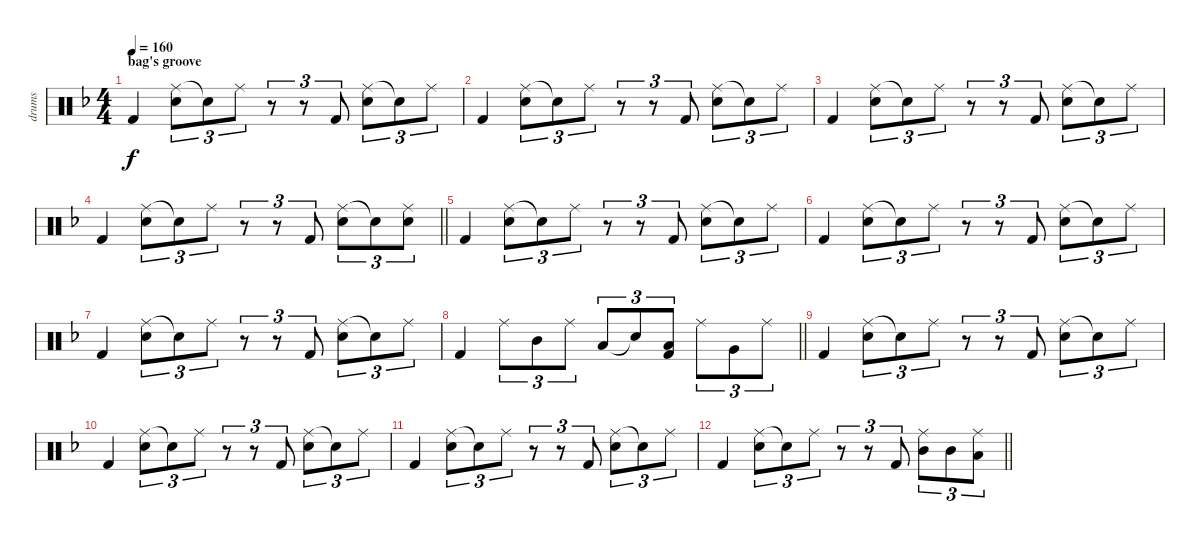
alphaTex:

\track ("drums" "drums") {instrument percussion}
\staff {score}
\articulation defaults
\ts (4 4)
\section ("" "bag's groove")
\tempo 160
\clef neutral
\ks f "Kick (hit) 2".4{dy f}
("Ride (middle)" "Electric Snare (hit)").8{tu (3 2)} "Snare (hit)"{t}.8{tu (3 2)} "Ride (middle)".8{tu (3 2)} r.8{tu (3 2)} r.8{tu (3 2)} "Kick (hit) 2".8{tu (3 2)} ("Ride (middle)" "Electric Snare (hit)").8{tu (3 2)} "Snare (hit)"{t}.8{tu (3 2)} "Ride (middle)".8{tu (3 2)} |
"Kick (hit) 2".4 ("Ride (middle)" "Electric Snare (hit)").8{tu (3 2)} "Snare (hit)"{t}.8{tu (3 2)} "Ride (middle)".8{tu (3 2)} r.8{tu (3 2)} r.8{tu (3 2)} "Kick (hit) 2".8{tu (3 2)} ("Ride (middle)" "Electric Snare (hit)").8{tu (3 2)} "Snare (hit)"{t}.8{tu (3 2)} "Ride (middle)".8{tu (3 2)} |
"Kick (hit) 2".4 ("Ride (middle)" "Electric Snare (hit)").8{tu (3 2)} "Snare (hit)"{t}.8{tu (3 2)} "Ride (middle)".8{tu (3 2)} r.8{tu (3 2)} r.8{tu (3 2)} "Kick (hit) 2".8{tu (3 2)} ("Ride (middle)" "Electric Snare (hit)").8{tu (3 2)} "Snare (hit)"{t}.8{tu (3 2)} "Ride (middle)".8{tu (3 2)} |
\barLineRight lightlight "Kick (hit) 2".4
("Ride (middle)" "Electric Snare (hit)").8{tu (3 2)} "Snare (hit)"{t}.8{tu (3 2)} "Ride (middle)".8{tu (3 2)} r.8{tu (3 2)} r.8{tu (3 2)} "Kick (hit) 2".8{tu (3 2)} ("Ride (middle)" "Electric Snare (hit)").8{tu (3 2)} "Snare (hit)"{t}.8{tu (3 2)} ("Ride (middle)" "Electric Snare (hit)").8{tu (3 2)} |
"Kick (hit) 2".4 ("Ride (middle)" "Electric Snare (hit)").8{tu (3 2)} "Snare (hit)"{t}.8{tu (3 2)} "Ride (middle)".8{tu (3 2)} r.8{tu (3 2)} r.8{tu (3 2)} "Kick (hit) 2".8{tu (3 2)} ("Ride (middle)" "Electric Snare (hit)").8{tu (3 2)} "Snare (hit)"{t}.8{tu (3 2)} "Ride (middle)".8{tu (3 2)} |
"Kick (hit) 2".4 ("Ride (middle)" "Electric Snare (hit)").8{tu (3 2)} "Snare (hit)"{t}.8{tu (3 2)} "Ride (middle)".8{tu (3 2)} r.8{tu (3 2)} r.8{tu (3 2)} "Kick (hit) 2".8{tu (3 2)} ("Ride (middle)" "Electric Snare (hit)").8{tu (3 2)} "Snare (hit)"{t}.8{tu (3 2)} "Ride (middle)".8{tu (3 2)} |
"Kick (hit) 2".4 ("Ride (middle)" "Electric Snare (hit)").8{tu (3 2)} "Snare (hit)"{t}.8{tu (3 2)} "Ride (middle)".8{tu (3 2)} r.8{tu (3 2)} r.8{tu (3 2)} "Kick (hit) 2".8{tu (3 2)} ("Ride (middle)" "Electric Snare (hit)").8{tu (3 2)} "Snare (hit)"{t}.8{tu (3 2)} "Ride (middle)".8{tu (3 2)} |
\barLineRight lightlight "Kick (hit) 2".4 "Ride (middle)".8{tu (3 2)} "Mid Tom (hit)".8{tu (3 2)} "Ride (middle)".8{tu (3 2)} "Low Tom (hit)".8{tu (3 2)} "Snare (hit)"{t}.8{tu (3 2)}
("Low Tom (hit)" "Kick (hit) 2").8{tu (3 2)} "Ride (middle)".8{tu (3 2)} "Very Low Tom (hit)".8{tu (3 2)} "Ride (middle)".8{tu (3 2)} |
"Kick (hit) 2".4 ("Ride (middle)" "Electric Snare (hit)").8{tu (3 2)} "Snare (hit)"{t}.8{tu (3 2)} "Ride (middle)".8{tu (3 2)} r.8{tu (3 2)} r.8{tu (3 2)} "Kick (hit) 2".8{tu (3 2)} ("Ride (middle)" "Electric Snare (hit)").8{tu (3 2)} "Snare (hit)"{t}.8{tu (3 2)} "Ride (middle)".8{tu (3 2)} |
"Kick (hit) 2".4 ("Ride (middle)" "Electric Snare (hit)").8{tu (3 2)} "Snare (hit)"{t}.8{tu (3 2)} "Ride (middle)".8{tu (3 2)} r.8{tu (3 2)} r.8{tu (3 2)} "Kick (hit) 2".8{tu (3 2)} ("Ride (middle)" "Electric Snare (hit)").8{tu (3 2)} "Snare (hit)"{t}.8{tu (3 2)} "Ride (middle)".8{tu (3 2)} |
"Kick (hit) 2".4 ("Ride (middle)" "Electric Snare (hit)").8{tu (3 2)} "Snare (hit)"{t}.8{tu (3 2)} "Ride (middle)".8{tu (3 2)} r.8{tu (3 2)} r.8{tu (3 2)} "Kick (hit) 2".8{tu (3 2)} ("Ride (middle)" "Electric Snare (hit)").8{tu (3 2)} "Snare (hit)"{t}.8{tu (3 2)} "Ride (middle)".8{tu (3 2)} |
\barLineRight lightlight "Kick (hit) 2".4
("Ride (middle)" "Electric Snare (hit)").8{tu (3 2)} "Snare (hit)"{t}.8{tu (3 2)} "Ride (middle)".8{tu (3 2)} r.8{tu (3 2)} r.8{tu (3 2)} "Kick (hit) 2".8{tu (3 2)} ("Ride (middle)" "Mid Tom (hit)").8{tu (3 2)} "Mid Tom (hit)".8{tu (3 2)} ("Ride (middle)" "Low Tom (hit)").8{tu (3 2)}
